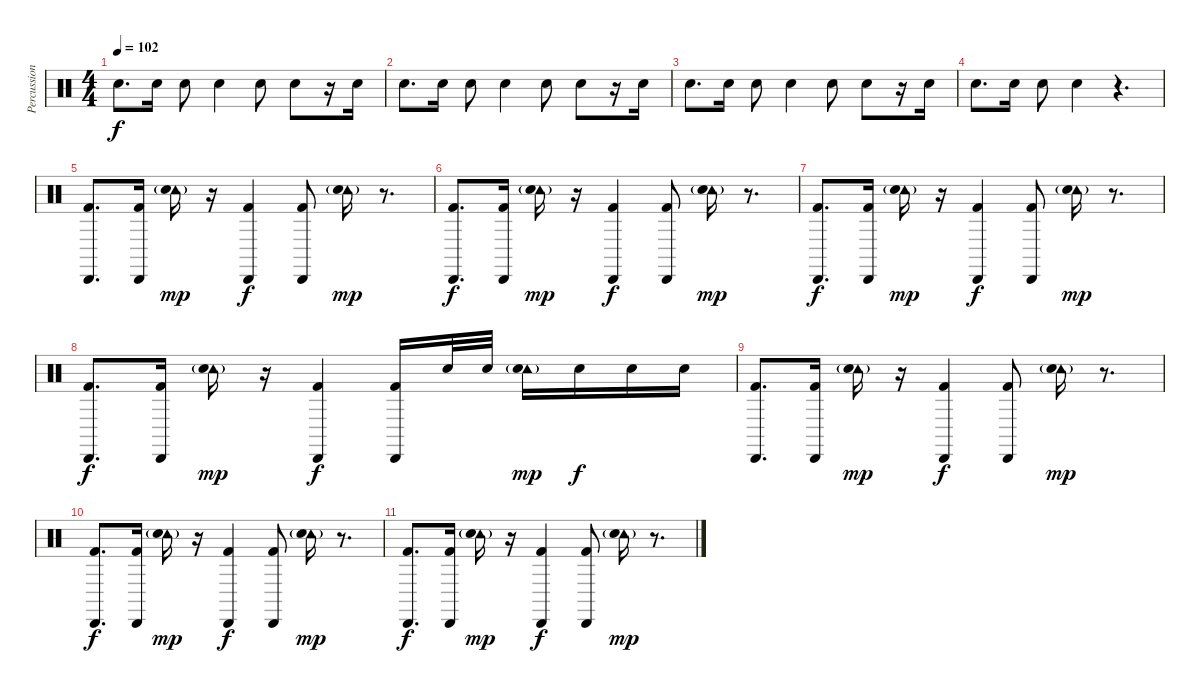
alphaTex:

\track ("Percussion" "Percussion") {instrument percussion}
\staff {score}
\articulation defaults
\ts (4 4)
\tempo 102
\clef neutral
\ks c "Electric Snare (hit)".8{d dy f} "Electric Snare (hit)".16 "Electric Snare (hit)".8 "Electric Snare (hit)".4 "Electric Snare (hit)".8 "Electric Snare (hit)".8
r.16 "Electric Snare (hit)".16 |
"Electric Snare (hit)".8{d} "Electric Snare (hit)".16 "Electric Snare (hit)".8 "Electric Snare (hit)".4 "Electric Snare (hit)".8 "Electric Snare (hit)".8 r.16 "Electric Snare (hit)".16 |
"Electric Snare (hit)".8{d} "Electric Snare (hit)".16 "Electric Snare (hit)".8 "Electric Snare (hit)".4 "Electric Snare (hit)".8 "Electric Snare (hit)".8 r.16 "Electric Snare (hit)".16 |
"Electric Snare (hit)".8{d} "Electric Snare (hit)".16 "Electric Snare (hit)".8 "Electric Snare (hit)".4 r.4{d} |
("Cabasa (hit)" "Kick (hit) 2").8{d} ("Cabasa (hit)" "Kick (hit) 2").16 ("Tambourine (hit)"{g} "Electric Snare (hit)").16{dy mp} r.16 ("Cabasa (hit)" "Kick (hit) 2").4{dy f} ("Cabasa (hit)" "Kick (hit) 2").8 ("Tambourine (hit)"{g} "Electric Snare (hit)").16{dy mp} r.8{d} |
("Cabasa (hit)" "Kick (hit) 2").8{d dy f} ("Cabasa (hit)" "Kick (hit) 2").16 ("Tambourine (hit)"{g} "Electric Snare (hit)").16{dy mp} r.16 ("Cabasa (hit)" "Kick (hit) 2").4{dy f} ("Cabasa (hit)" "Kick (hit) 2").8 ("Tambourine (hit)"{g} "Electric Snare (hit)").16{dy mp} r.8{d} |
("Cabasa (hit)" "Kick (hit) 2").8{d dy f} ("Cabasa (hit)" "Kick (hit) 2").16 ("Tambourine (hit)"{g} "Electric Snare (hit)").16{dy mp} r.16 ("Cabasa (hit)" "Kick (hit) 2").4{dy f} ("Cabasa (hit)" "Kick (hit) 2").8 ("Tambourine (hit)"{g} "Electric Snare (hit)").16{dy mp} r.8{d} |
("Cabasa (hit)" "Kick (hit) 2").8{d dy f} ("Cabasa (hit)" "Kick (hit) 2").16 ("Tambourine (hit)"{g} "Electric Snare (hit)").16{dy mp} r.16 ("Cabasa (hit)" "Kick (hit) 2").4{dy f} ("Cabasa (hit)" "Kick (hit) 2").16 "Electric Snare (hit)".32 "Electric Snare (hit)".32 ("Tambourine (hit)"{g} "Electric Snare (hit)").16{dy mp} "Electric Snare (hit)".16{dy f} "Electric Snare (hit)".16 "Electric Snare (hit)".16 |
("Cabasa (hit)" "Kick (hit) 2").8{d} ("Cabasa (hit)" "Kick (hit) 2").16 ("Tambourine (hit)"{g} "Electric Snare (hit)").16{dy mp} r.16 ("Cabasa (hit)" "Kick (hit) 2").4{dy f} ("Cabasa (hit)" "Kick (hit) 2").8 ("Tambourine (hit)"{g} "Electric Snare (hit)").16{dy mp} r.8{d} |
("Cabasa (hit)" "Kick (hit) 2").8{d dy f} ("Cabasa (hit)" "Kick (hit) 2").16 ("Tambourine (hit)"{g} "Electric Snare (hit)").16{dy mp} r.16 ("Cabasa (hit)" "Kick (hit) 2").4{dy f} ("Cabasa (hit)" "Kick (hit) 2").8 ("Tambourine (hit)"{g} "Electric Snare (hit)").16{dy mp} r.8{d} |
("Cabasa (hit)" "Kick (hit) 2").8{d dy f} ("Cabasa (hit)" "Kick (hit) 2").16 ("Tambourine (hit)"{g} "Electric Snare (hit)").16{dy mp} r.16 ("Cabasa (hit)" "Kick (hit) 2").4{dy f} ("Cabasa (hit)" "Kick (hit) 2").8 ("Tambourine (hit)"{g} "Electric Snare (hit)").16{dy mp} r.8{d}
